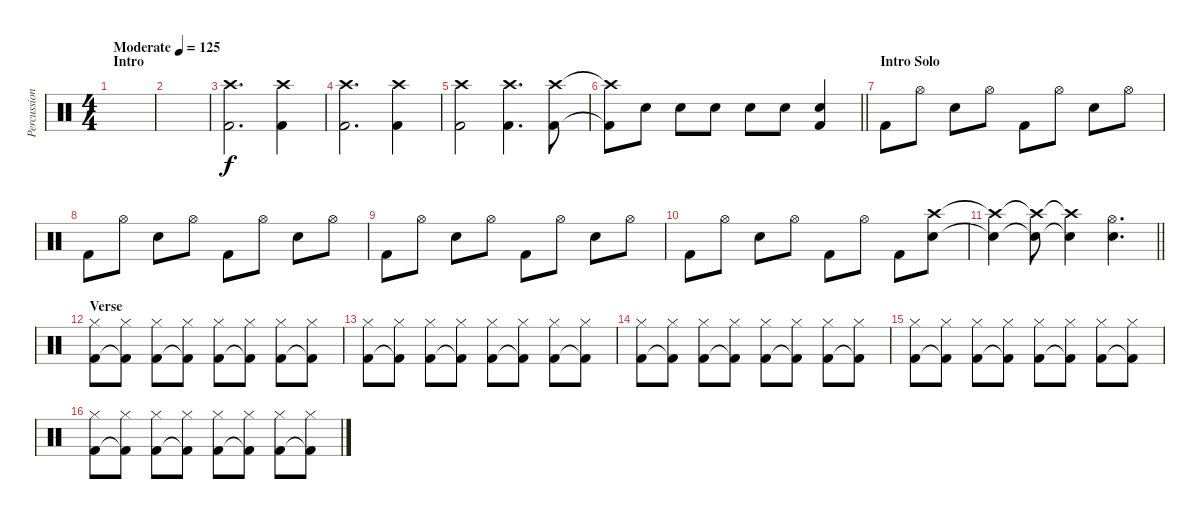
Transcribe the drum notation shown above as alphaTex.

\track ("Percussion" "Percussion") {instrument percussion}
\staff {score}
\articulation defaults
\ts (4 4)
\section ("" "Intro")
\tempo (125 "Moderate")
\clef neutral
\ks c
|
|
("Crash high (hit)" "Kick (hit) 2").2{d} ("Crash high (hit)" "Kick (hit) 2").4 |
("Crash high (hit)" "Kick (hit) 2").2{d} ("Crash high (hit)" "Kick (hit) 2").4 |
("Crash high (hit)" "Kick (hit) 2").2 ("Crash high (hit)" "Kick (hit) 2").4{d} ("Crash high (hit)" "Kick (hit) 2").8 |
\barLineRight lightlight
("Crash high (hit)"{t} "Kick (hit) 2"{t}).8 "Electric Snare (hit)".8 "Electric Snare (hit)".8 "Electric Snare (hit)".8 "Electric Snare (hit)".8 "Electric Snare (hit)".8 ("Electric Snare (hit)" "Kick (hit) 2").4 |
\section ("" "Intro Solo")
"Kick (hit) 2".8 "Hi-Hat (open)".8 "Snare (hit) 2".8 "Hi-Hat (open)".8 "Kick (hit) 2".8 "Hi-Hat (open)".8 "Snare (hit) 2".8 "Hi-Hat (open)".8 |
"Kick (hit) 2".8 "Hi-Hat (open)".8 "Snare (hit) 2".8 "Hi-Hat (open)".8 "Kick (hit) 2".8 "Hi-Hat (open)".8 "Snare (hit) 2".8 "Hi-Hat (open)".8 |
"Kick (hit) 2".8 "Hi-Hat (open)".8 "Snare (hit) 2".8 "Hi-Hat (open)".8 "Kick (hit) 2".8 "Hi-Hat (open)".8 "Snare (hit) 2".8 "Hi-Hat (open)".8 |
"Kick (hit) 2".8 "Hi-Hat (open)".8 "Snare (hit) 2".8 "Hi-Hat (open)".8 "Kick (hit) 2".8 "Hi-Hat (open)".8 "Kick (hit) 2".8 ("Crash high (hit)" "Snare (hit) 2").8 |
\barLineRight lightlight
("Crash high (hit)"{t} "Snare (hit) 2"{t}).4 ("Crash high (hit)"{t} "Snare (hit) 2"{t}).8 ("Crash high (hit)"{t} "Snare (hit) 2"{t}).4 ("Hi-Hat (open)" "Snare (hit) 2").4{d} |
\section ("" "Verse")
("Hi-Hat (closed)" "Kick (hit) 2").8 ("Hi-Hat (closed)" "Kick (hit) 2"{t}).8 ("Hi-Hat (closed)" "Kick (hit) 2").8 ("Hi-Hat (closed)" "Kick (hit) 2"{t}).8 ("Hi-Hat (closed)" "Kick (hit) 2").8 ("Hi-Hat (closed)" "Kick (hit) 2"{t}).8 ("Hi-Hat (closed)" "Kick (hit) 2").8 ("Hi-Hat (closed)" "Kick (hit) 2"{t}).8 |
("Hi-Hat (closed)" "Kick (hit) 2").8 ("Hi-Hat (closed)" "Kick (hit) 2"{t}).8 ("Hi-Hat (closed)" "Kick (hit) 2").8 ("Hi-Hat (closed)" "Kick (hit) 2"{t}).8 ("Hi-Hat (closed)" "Kick (hit) 2").8 ("Hi-Hat (closed)" "Kick (hit) 2"{t}).8 ("Hi-Hat (closed)" "Kick (hit) 2").8 ("Hi-Hat (closed)" "Kick (hit) 2"{t}).8 |
("Hi-Hat (closed)" "Kick (hit) 2").8 ("Hi-Hat (closed)" "Kick (hit) 2"{t}).8 ("Hi-Hat (closed)" "Kick (hit) 2").8 ("Hi-Hat (closed)" "Kick (hit) 2"{t}).8 ("Hi-Hat (closed)" "Kick (hit) 2").8 ("Hi-Hat (closed)" "Kick (hit) 2"{t}).8 ("Hi-Hat (closed)" "Kick (hit) 2").8 ("Hi-Hat (closed)" "Kick (hit) 2"{t}).8 |
("Hi-Hat (closed)" "Kick (hit) 2").8 ("Hi-Hat (closed)" "Kick (hit) 2"{t}).8 ("Hi-Hat (closed)" "Kick (hit) 2").8 ("Hi-Hat (closed)" "Kick (hit) 2"{t}).8 ("Hi-Hat (closed)" "Kick (hit) 2").8 ("Hi-Hat (closed)" "Kick (hit) 2"{t}).8 ("Hi-Hat (closed)" "Kick (hit) 2").8 ("Hi-Hat (closed)" "Kick (hit) 2"{t}).8 |
("Hi-Hat (closed)" "Kick (hit) 2").8 ("Hi-Hat (closed)" "Kick (hit) 2"{t}).8 ("Hi-Hat (closed)" "Kick (hit) 2").8 ("Hi-Hat (closed)" "Kick (hit) 2"{t}).8 ("Hi-Hat (closed)" "Kick (hit) 2").8 ("Hi-Hat (closed)" "Kick (hit) 2"{t}).8 ("Hi-Hat (closed)" "Kick (hit) 2").8 ("Hi-Hat (closed)" "Kick (hit) 2"{t}).8
